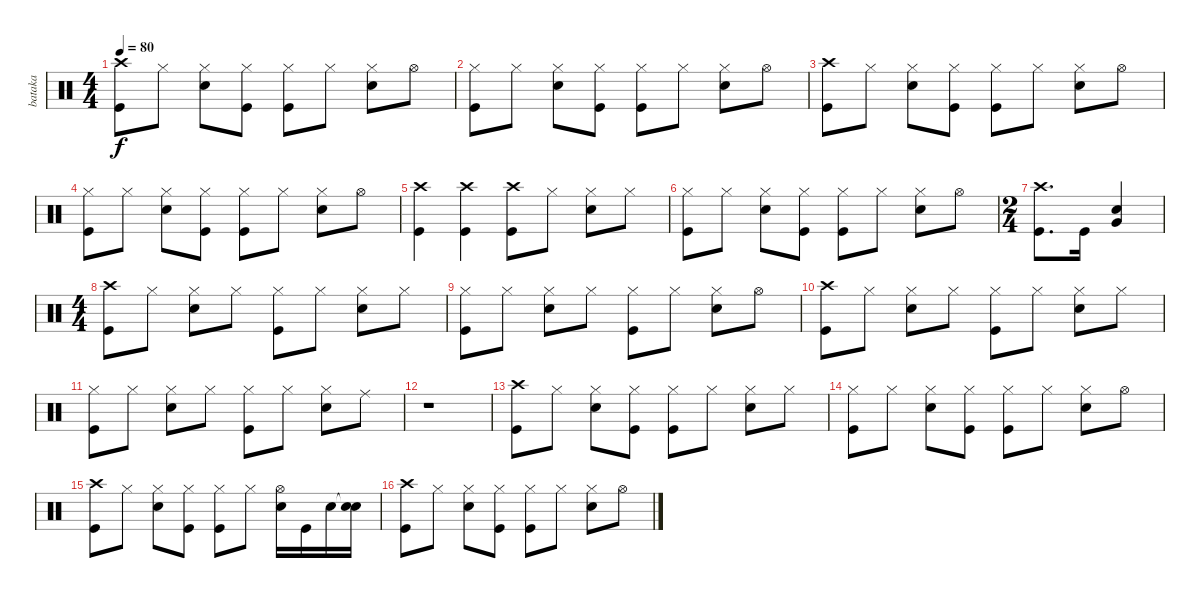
\track ("bataka" "bataka") {instrument percussion}
\staff {score}
\articulation defaults
\ts (4 4)
\tempo 80
\clef neutral
\ks c
("Crash high (hit)" "Kick (hit)").8{dy f} "Hi-Hat (closed)".8 ("Hi-Hat (closed)" "Electric Snare (hit)").8 ("Hi-Hat (closed)" "Kick (hit)").8 ("Hi-Hat (closed)" "Kick (hit)").8 "Hi-Hat (closed)".8 ("Hi-Hat (closed)" "Electric Snare (hit)").8 "Hi-Hat (open)".8 |
("Hi-Hat (closed)" "Kick (hit)").8 "Hi-Hat (closed)".8 ("Hi-Hat (closed)" "Electric Snare (hit)").8 ("Hi-Hat (closed)" "Kick (hit)").8 ("Hi-Hat (closed)" "Kick (hit)").8 "Hi-Hat (closed)".8 ("Hi-Hat (closed)" "Electric Snare (hit)").8 "Hi-Hat (open)".8 |
("Crash high (hit)" "Kick (hit)").8 "Hi-Hat (closed)".8 ("Hi-Hat (closed)" "Electric Snare (hit)").8 ("Hi-Hat (closed)" "Kick (hit)").8 ("Hi-Hat (closed)" "Kick (hit)").8 "Hi-Hat (closed)".8 ("Hi-Hat (closed)" "Electric Snare (hit)").8 "Hi-Hat (open)".8 |
("Hi-Hat (closed)" "Kick (hit)").8 "Hi-Hat (closed)".8 ("Hi-Hat (closed)" "Electric Snare (hit)").8 ("Hi-Hat (closed)" "Kick (hit)").8 ("Hi-Hat (closed)" "Kick (hit)").8 "Hi-Hat (closed)".8 ("Hi-Hat (closed)" "Electric Snare (hit)").8 "Hi-Hat (open)".8 |
("Crash high (hit)" "Kick (hit)").4 ("Crash high (hit)" "Kick (hit)").4 ("Crash high (hit)" "Kick (hit)").8 "Hi-Hat (closed)".8 ("Hi-Hat (closed)" "Electric Snare (hit)").8 "Hi-Hat (closed)".8 |
("Hi-Hat (closed)" "Kick (hit)").8 "Hi-Hat (closed)".8 ("Hi-Hat (closed)" "Electric Snare (hit)").8 ("Hi-Hat (closed)" "Kick (hit)").8 ("Hi-Hat (closed)" "Kick (hit)").8 "Hi-Hat (closed)".8 ("Hi-Hat (closed)" "Electric Snare (hit)").8 "Hi-Hat (open)".8 |
\ts (2 4)
("Crash high (hit)" "Kick (hit)").8{d} "Kick (hit)".16 ("Electric Snare (hit)" "Very Low Tom (hit)").4 |
\ts (4 4)
("Crash high (hit)" "Kick (hit)").8 "Hi-Hat (closed)".8 ("Hi-Hat (closed)" "Electric Snare (hit)").8 "Hi-Hat (closed)".8 ("Hi-Hat (closed)" "Kick (hit)").8 "Hi-Hat (closed)".8 ("Hi-Hat (closed)" "Electric Snare (hit)").8 "Hi-Hat (closed)".8 |
("Hi-Hat (closed)" "Kick (hit)").8 "Hi-Hat (closed)".8 ("Hi-Hat (closed)" "Electric Snare (hit)").8 "Hi-Hat (closed)".8 ("Hi-Hat (closed)" "Kick (hit)").8 "Hi-Hat (closed)".8 ("Hi-Hat (closed)" "Electric Snare (hit)").8 "Hi-Hat (open)".8 |
("Crash high (hit)" "Kick (hit)").8 "Hi-Hat (closed)".8 ("Hi-Hat (closed)" "Electric Snare (hit)").8 "Hi-Hat (closed)".8 ("Hi-Hat (closed)" "Kick (hit)").8 "Hi-Hat (closed)".8 ("Hi-Hat (closed)" "Electric Snare (hit)").8 "Hi-Hat (closed)".8 |
("Hi-Hat (closed)" "Kick (hit)").8 "Hi-Hat (closed)".8 ("Hi-Hat (closed)" "Electric Snare (hit)").8 "Hi-Hat (closed)".8 ("Hi-Hat (closed)" "Kick (hit)").8 "Hi-Hat (closed)".8 ("Hi-Hat (closed)" "Electric Snare (hit)").8 "Ride (middle)".8 |
r.1 |
("Crash high (hit)" "Kick (hit)").8 "Hi-Hat (closed)".8 ("Hi-Hat (closed)" "Electric Snare (hit)").8 ("Hi-Hat (closed)" "Kick (hit)").8 ("Hi-Hat (closed)" "Kick (hit)").8 "Hi-Hat (closed)".8 ("Hi-Hat (closed)" "Electric Snare (hit)").8 "Hi-Hat (closed)".8 |
("Hi-Hat (closed)" "Kick (hit)").8 "Hi-Hat (closed)".8 ("Hi-Hat (closed)" "Electric Snare (hit)").8 ("Hi-Hat (closed)" "Kick (hit)").8 ("Hi-Hat (closed)" "Kick (hit)").8 "Hi-Hat (closed)".8 ("Hi-Hat (closed)" "Electric Snare (hit)").8 "Hi-Hat (open)".8 |
("Crash high (hit)" "Kick (hit)").8 "Hi-Hat (closed)".8 ("Hi-Hat (closed)" "Electric Snare (hit)").8 ("Hi-Hat (closed)" "Kick (hit)").8 ("Hi-Hat (closed)" "Kick (hit)").8 "Hi-Hat (closed)".8 ("Hi-Hat (open)" "Electric Snare (hit)").16 "Kick (hit)".16 "Electric Snare (hit)".16 ("Snare (hit)"{t} "Electric Snare (hit)").16 |
("Crash high (hit)" "Kick (hit)").8 "Hi-Hat (closed)".8 ("Hi-Hat (closed)" "Electric Snare (hit)").8 ("Hi-Hat (closed)" "Kick (hit)").8 ("Hi-Hat (closed)" "Kick (hit)").8 "Hi-Hat (closed)".8 ("Hi-Hat (closed)" "Electric Snare (hit)").8 "Hi-Hat (open)".8
